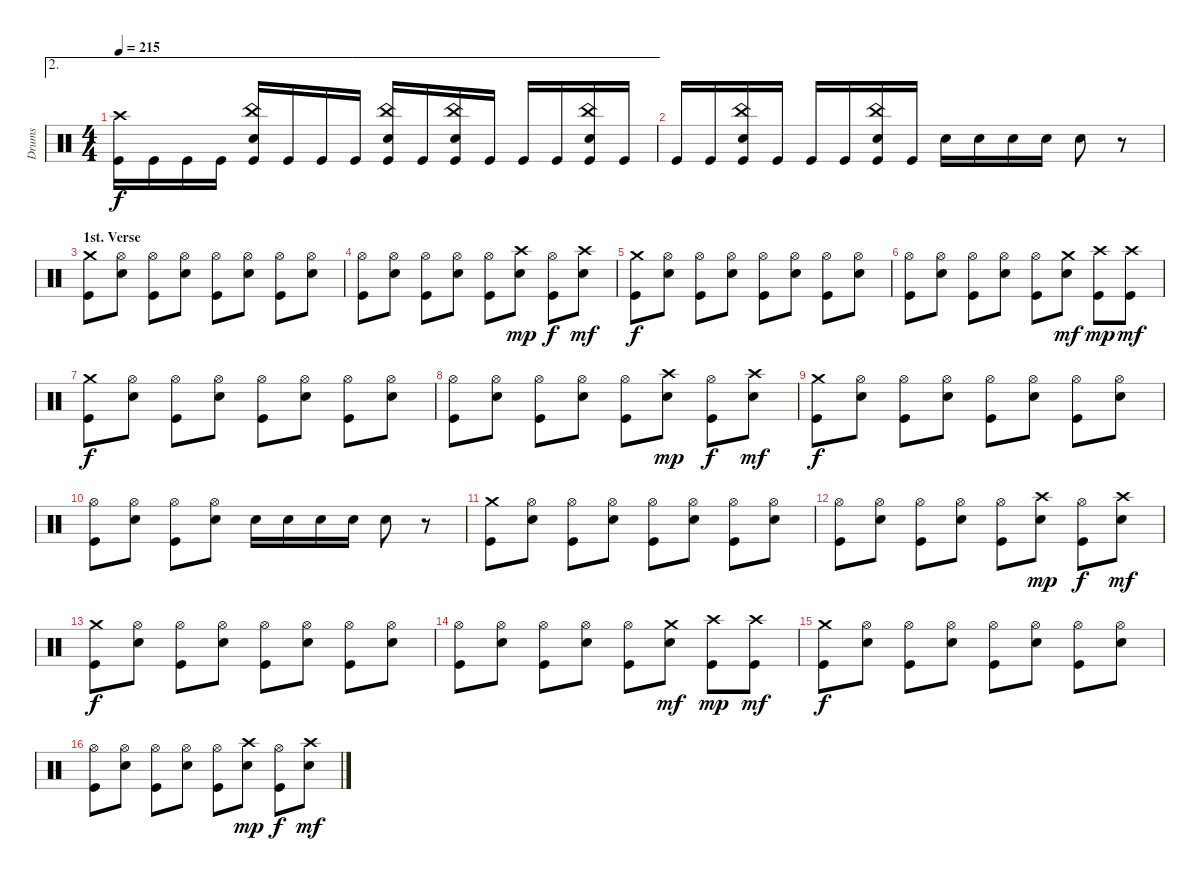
\track ("Drums" "Drums") {instrument percussion}
\staff {score}
\articulation defaults
\ae 2
\ts (4 4)
\tempo 215
\clef neutral
\ks c
("Crash high (hit)" "Kick (hit)").16{dy f} "Kick (hit)".16 "Kick (hit)".16 "Kick (hit)".16 ("China (hit)" "Electric Snare (hit)" "Kick (hit)").16 "Kick (hit)".16 "Kick (hit)".16 "Kick (hit)".16 ("China (hit)" "Electric Snare (hit)" "Kick (hit)").16 "Kick (hit)".16 ("China (hit)" "Electric Snare (hit)" "Kick (hit)").16 "Kick (hit)".16 "Kick (hit)".16 "Kick (hit)".16 ("China (hit)" "Electric Snare (hit)" "Kick (hit)").16 "Kick (hit)".16 |
"Kick (hit)".16 "Kick (hit)".16 ("China (hit)" "Electric Snare (hit)" "Kick (hit)").16 "Kick (hit)".16 "Kick (hit)".16 "Kick (hit)".16 ("China (hit)" "Electric Snare (hit)" "Kick (hit)").16 "Kick (hit)".16 "Electric Snare (hit)".16 "Electric Snare (hit)".16 "Electric Snare (hit)".16 "Electric Snare (hit)".16 "Electric Snare (hit)".8 r.8 |
\section ("" "1st. Verse")
("Crash medium (hit)" "Kick (hit)").8 ("Hi-Hat (open)" "Electric Snare (hit)").8 ("Hi-Hat (open)" "Kick (hit)").8 ("Hi-Hat (open)" "Electric Snare (hit)").8 ("Hi-Hat (open)" "Kick (hit)").8 ("Hi-Hat (open)" "Electric Snare (hit)").8 ("Hi-Hat (open)" "Kick (hit)").8 ("Hi-Hat (open)" "Electric Snare (hit)").8 |
("Hi-Hat (open)" "Kick (hit)").8 ("Hi-Hat (open)" "Electric Snare (hit)").8 ("Hi-Hat (open)" "Kick (hit)").8 ("Hi-Hat (open)" "Electric Snare (hit)").8 ("Hi-Hat (open)" "Kick (hit)").8 ("Crash high (hit)" "Electric Snare (hit)").8{dy mp} ("Hi-Hat (open)" "Kick (hit)").8{dy f} ("Crash high (hit)" "Electric Snare (hit)").8{dy mf} |
("Crash medium (hit)" "Kick (hit)").8{dy f} ("Hi-Hat (open)" "Electric Snare (hit)").8 ("Hi-Hat (open)" "Kick (hit)").8 ("Hi-Hat (open)" "Electric Snare (hit)").8 ("Hi-Hat (open)" "Kick (hit)").8 ("Hi-Hat (open)" "Electric Snare (hit)").8 ("Hi-Hat (open)" "Kick (hit)").8 ("Hi-Hat (open)" "Electric Snare (hit)").8 |
("Hi-Hat (open)" "Kick (hit)").8 ("Hi-Hat (open)" "Electric Snare (hit)").8 ("Hi-Hat (open)" "Kick (hit)").8 ("Hi-Hat (open)" "Electric Snare (hit)").8 ("Hi-Hat (open)" "Kick (hit)").8 ("Crash medium (hit)" "Electric Snare (hit)").8{dy mf} ("Crash high (hit)" "Kick (hit)").8{dy mp} ("Crash high (hit)" "Kick (hit)").8{dy mf} |
("Crash medium (hit)" "Kick (hit)").8{dy f} ("Hi-Hat (open)" "Electric Snare (hit)").8 ("Hi-Hat (open)" "Kick (hit)").8 ("Hi-Hat (open)" "Electric Snare (hit)").8 ("Hi-Hat (open)" "Kick (hit)").8 ("Hi-Hat (open)" "Electric Snare (hit)").8 ("Hi-Hat (open)" "Kick (hit)").8 ("Hi-Hat (open)" "Electric Snare (hit)").8 |
("Hi-Hat (open)" "Kick (hit)").8 ("Hi-Hat (open)" "Electric Snare (hit)").8 ("Hi-Hat (open)" "Kick (hit)").8 ("Hi-Hat (open)" "Electric Snare (hit)").8 ("Hi-Hat (open)" "Kick (hit)").8 ("Crash high (hit)" "Electric Snare (hit)").8{dy mp} ("Hi-Hat (open)" "Kick (hit)").8{dy f} ("Crash high (hit)" "Electric Snare (hit)").8{dy mf} |
("Crash medium (hit)" "Kick (hit)").8{dy f} ("Hi-Hat (open)" "Electric Snare (hit)").8 ("Hi-Hat (open)" "Kick (hit)").8 ("Hi-Hat (open)" "Electric Snare (hit)").8 ("Hi-Hat (open)" "Kick (hit)").8 ("Hi-Hat (open)" "Electric Snare (hit)").8 ("Hi-Hat (open)" "Kick (hit)").8 ("Hi-Hat (open)" "Electric Snare (hit)").8 |
("Hi-Hat (open)" "Kick (hit)").8 ("Hi-Hat (open)" "Electric Snare (hit)").8 ("Hi-Hat (open)" "Kick (hit)").8 ("Hi-Hat (open)" "Electric Snare (hit)").8 "Electric Snare (hit)".16 "Electric Snare (hit)".16 "Electric Snare (hit)".16 "Electric Snare (hit)".16 "Electric Snare (hit)".8 r.8 |
("Crash medium (hit)" "Kick (hit)").8 ("Hi-Hat (open)" "Electric Snare (hit)").8 ("Hi-Hat (open)" "Kick (hit)").8 ("Hi-Hat (open)" "Electric Snare (hit)").8 ("Hi-Hat (open)" "Kick (hit)").8 ("Hi-Hat (open)" "Electric Snare (hit)").8 ("Hi-Hat (open)" "Kick (hit)").8 ("Hi-Hat (open)" "Electric Snare (hit)").8 |
("Hi-Hat (open)" "Kick (hit)").8 ("Hi-Hat (open)" "Electric Snare (hit)").8 ("Hi-Hat (open)" "Kick (hit)").8 ("Hi-Hat (open)" "Electric Snare (hit)").8 ("Hi-Hat (open)" "Kick (hit)").8 ("Crash high (hit)" "Electric Snare (hit)").8{dy mp} ("Hi-Hat (open)" "Kick (hit)").8{dy f} ("Crash high (hit)" "Electric Snare (hit)").8{dy mf} |
("Crash medium (hit)" "Kick (hit)").8{dy f} ("Hi-Hat (open)" "Electric Snare (hit)").8 ("Hi-Hat (open)" "Kick (hit)").8 ("Hi-Hat (open)" "Electric Snare (hit)").8 ("Hi-Hat (open)" "Kick (hit)").8 ("Hi-Hat (open)" "Electric Snare (hit)").8 ("Hi-Hat (open)" "Kick (hit)").8 ("Hi-Hat (open)" "Electric Snare (hit)").8 |
("Hi-Hat (open)" "Kick (hit)").8 ("Hi-Hat (open)" "Electric Snare (hit)").8 ("Hi-Hat (open)" "Kick (hit)").8 ("Hi-Hat (open)" "Electric Snare (hit)").8 ("Hi-Hat (open)" "Kick (hit)").8 ("Crash medium (hit)" "Electric Snare (hit)").8{dy mf} ("Crash high (hit)" "Kick (hit)").8{dy mp} ("Crash high (hit)" "Kick (hit)").8{dy mf} |
("Crash medium (hit)" "Kick (hit)").8{dy f} ("Hi-Hat (open)" "Electric Snare (hit)").8 ("Hi-Hat (open)" "Kick (hit)").8 ("Hi-Hat (open)" "Electric Snare (hit)").8 ("Hi-Hat (open)" "Kick (hit)").8 ("Hi-Hat (open)" "Electric Snare (hit)").8 ("Hi-Hat (open)" "Kick (hit)").8 ("Hi-Hat (open)" "Electric Snare (hit)").8 |
("Hi-Hat (open)" "Kick (hit)").8 ("Hi-Hat (open)" "Electric Snare (hit)").8 ("Hi-Hat (open)" "Kick (hit)").8 ("Hi-Hat (open)" "Electric Snare (hit)").8 ("Hi-Hat (open)" "Kick (hit)").8 ("Crash high (hit)" "Electric Snare (hit)").8{dy mp} ("Hi-Hat (open)" "Kick (hit)").8{dy f} ("Crash high (hit)" "Electric Snare (hit)").8{dy mf}
